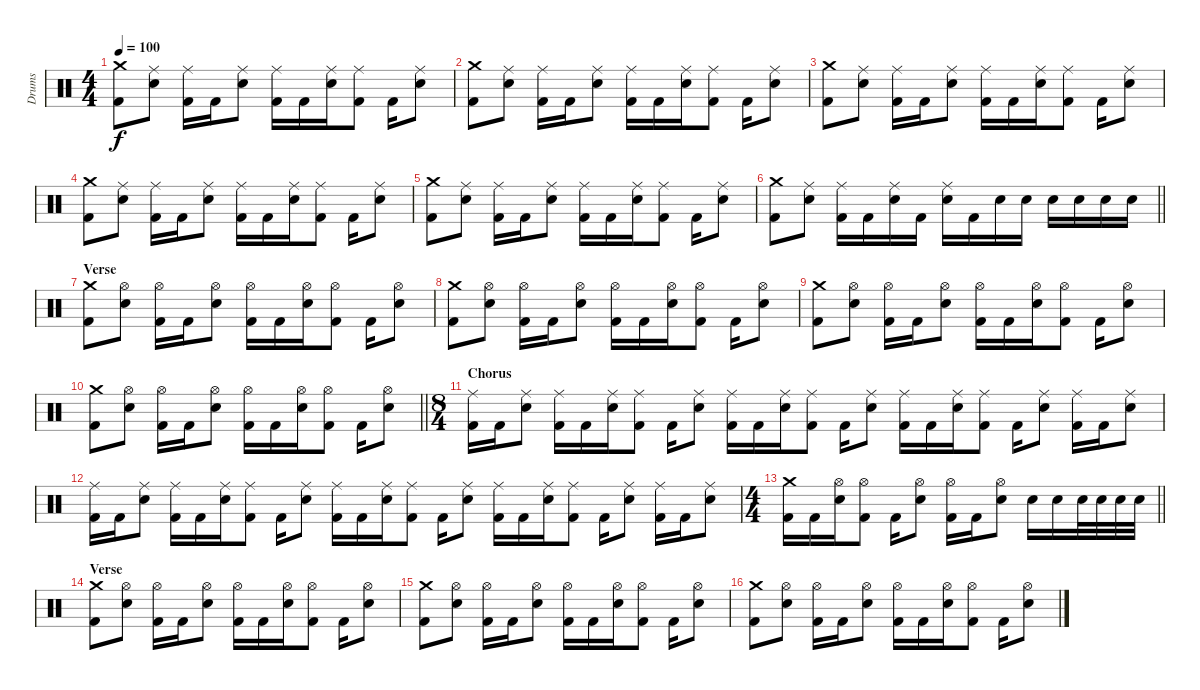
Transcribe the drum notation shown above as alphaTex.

\track ("Drums" "Drums") {instrument percussion}
\staff {score}
\articulation defaults
\ts (4 4)
\tempo 100
\clef neutral
\ks c
("Crash medium (hit)" "Kick (hit) 2").8{dy f} ("Ride (middle)" "Snare (hit) 2").8 ("Ride (middle)" "Kick (hit) 2").16 "Kick (hit) 2".16 ("Ride (middle)" "Snare (hit) 2").8 ("Ride (middle)" "Kick (hit) 2").16 "Kick (hit) 2".16 ("Ride (middle)" "Snare (hit) 2").16 ("Ride (middle)" "Kick (hit) 2").8 "Kick (hit) 2".16 ("Ride (middle)" "Snare (hit) 2").8 |
("Crash medium (hit)" "Kick (hit) 2").8 ("Ride (middle)" "Snare (hit) 2").8 ("Ride (middle)" "Kick (hit) 2").16 "Kick (hit) 2".16 ("Ride (middle)" "Snare (hit) 2").8 ("Ride (middle)" "Kick (hit) 2").16 "Kick (hit) 2".16 ("Ride (middle)" "Snare (hit) 2").16 ("Ride (middle)" "Kick (hit) 2").8 "Kick (hit) 2".16 ("Ride (middle)" "Snare (hit) 2").8 |
("Crash medium (hit)" "Kick (hit) 2").8 ("Ride (middle)" "Snare (hit) 2").8 ("Ride (middle)" "Kick (hit) 2").16 "Kick (hit) 2".16 ("Ride (middle)" "Snare (hit) 2").8 ("Ride (middle)" "Kick (hit) 2").16 "Kick (hit) 2".16 ("Ride (middle)" "Snare (hit) 2").16 ("Ride (middle)" "Kick (hit) 2").8 "Kick (hit) 2".16 ("Ride (middle)" "Snare (hit) 2").8 |
("Crash medium (hit)" "Kick (hit) 2").8 ("Ride (middle)" "Snare (hit) 2").8 ("Ride (middle)" "Kick (hit) 2").16 "Kick (hit) 2".16 ("Ride (middle)" "Snare (hit) 2").8 ("Ride (middle)" "Kick (hit) 2").16 "Kick (hit) 2".16 ("Ride (middle)" "Snare (hit) 2").16 ("Ride (middle)" "Kick (hit) 2").8 "Kick (hit) 2".16 ("Ride (middle)" "Snare (hit) 2").8 |
("Crash medium (hit)" "Kick (hit) 2").8 ("Ride (middle)" "Snare (hit) 2").8 ("Ride (middle)" "Kick (hit) 2").16 "Kick (hit) 2".16 ("Ride (middle)" "Snare (hit) 2").8 ("Ride (middle)" "Kick (hit) 2").16 "Kick (hit) 2".16 ("Ride (middle)" "Snare (hit) 2").16 ("Ride (middle)" "Kick (hit) 2").8 "Kick (hit) 2".16 ("Ride (middle)" "Snare (hit) 2").8 |
\barLineRight lightlight
("Crash medium (hit)" "Kick (hit) 2").8 ("Ride (middle)" "Snare (hit) 2").8 ("Ride (middle)" "Kick (hit) 2").16 "Kick (hit) 2".16 ("Ride (middle)" "Snare (hit) 2").16 "Kick (hit) 2".16 ("Ride (middle)" "Snare (hit) 2").16 "Kick (hit) 2".16 "Snare (hit) 2".16 "Snare (hit) 2".16 "Snare (hit) 2".16 "Snare (hit) 2".16 "Snare (hit) 2".16 "Snare (hit) 2".16 |
\section ("" "Verse")
("Crash medium (hit)" "Kick (hit) 2").8 ("Hi-Hat (open)" "Snare (hit) 2").8 ("Hi-Hat (open)" "Kick (hit) 2").16 "Kick (hit) 2".16 ("Hi-Hat (open)" "Snare (hit) 2").8 ("Hi-Hat (open)" "Kick (hit) 2").16 "Kick (hit) 2".16 ("Hi-Hat (open)" "Snare (hit) 2").16 ("Hi-Hat (open)" "Kick (hit) 2").8 "Kick (hit) 2".16 ("Hi-Hat (open)" "Snare (hit) 2").8 |
("Crash medium (hit)" "Kick (hit) 2").8 ("Hi-Hat (open)" "Snare (hit) 2").8 ("Hi-Hat (open)" "Kick (hit) 2").16 "Kick (hit) 2".16 ("Hi-Hat (open)" "Snare (hit) 2").8 ("Hi-Hat (open)" "Kick (hit) 2").16 "Kick (hit) 2".16 ("Hi-Hat (open)" "Snare (hit) 2").16 ("Hi-Hat (open)" "Kick (hit) 2").8 "Kick (hit) 2".16 ("Hi-Hat (open)" "Snare (hit) 2").8 |
("Crash medium (hit)" "Kick (hit) 2").8 ("Hi-Hat (open)" "Snare (hit) 2").8 ("Hi-Hat (open)" "Kick (hit) 2").16 "Kick (hit) 2".16 ("Hi-Hat (open)" "Snare (hit) 2").8 ("Hi-Hat (open)" "Kick (hit) 2").16 "Kick (hit) 2".16 ("Hi-Hat (open)" "Snare (hit) 2").16 ("Hi-Hat (open)" "Kick (hit) 2").8 "Kick (hit) 2".16 ("Hi-Hat (open)" "Snare (hit) 2").8 |
\barLineRight lightlight
("Crash medium (hit)" "Kick (hit) 2").8 ("Hi-Hat (open)" "Snare (hit) 2").8 ("Hi-Hat (open)" "Kick (hit) 2").16 "Kick (hit) 2".16 ("Hi-Hat (open)" "Snare (hit) 2").8 ("Hi-Hat (open)" "Kick (hit) 2").16 "Kick (hit) 2".16 ("Hi-Hat (open)" "Snare (hit) 2").16 ("Hi-Hat (open)" "Kick (hit) 2").8 "Kick (hit) 2".16 ("Hi-Hat (open)" "Snare (hit) 2").8 |
\ts (8 4)
\section ("" "Chorus")
("Ride (middle)" "Kick (hit) 2").16 "Kick (hit) 2".16 ("Ride (middle)" "Snare (hit) 2").8 ("Ride (middle)" "Kick (hit) 2").16 "Kick (hit) 2".16 ("Ride (middle)" "Snare (hit) 2").16 ("Ride (middle)" "Kick (hit) 2").8 "Kick (hit) 2".16 ("Ride (middle)" "Snare (hit) 2").8 ("Ride (middle)" "Kick (hit) 2").16 "Kick (hit) 2".16 ("Ride (middle)" "Snare (hit) 2").16 ("Ride (middle)" "Kick (hit) 2").8 "Kick (hit) 2".16 ("Ride (middle)" "Snare (hit) 2").8 ("Ride (middle)" "Kick (hit) 2").16 "Kick (hit) 2".16 ("Ride (middle)" "Snare (hit) 2").16 ("Ride (middle)" "Kick (hit) 2").8 "Kick (hit) 2".16 ("Ride (middle)" "Snare (hit) 2").8 ("Ride (middle)" "Kick (hit) 2").16 "Kick (hit) 2".16 ("Ride (middle)" "Snare (hit) 2").8 |
("Ride (middle)" "Kick (hit) 2").16 "Kick (hit) 2".16 ("Ride (middle)" "Snare (hit) 2").8 ("Ride (middle)" "Kick (hit) 2").16 "Kick (hit) 2".16 ("Ride (middle)" "Snare (hit) 2").16 ("Ride (middle)" "Kick (hit) 2").8 "Kick (hit) 2".16 ("Ride (middle)" "Snare (hit) 2").8 ("Ride (middle)" "Kick (hit) 2").16 "Kick (hit) 2".16 ("Ride (middle)" "Snare (hit) 2").16 ("Ride (middle)" "Kick (hit) 2").8 "Kick (hit) 2".16 ("Ride (middle)" "Snare (hit) 2").8 ("Ride (middle)" "Kick (hit) 2").16 "Kick (hit) 2".16 ("Ride (middle)" "Snare (hit) 2").16 ("Ride (middle)" "Kick (hit) 2").8 "Kick (hit) 2".16 ("Ride (middle)" "Snare (hit) 2").8 ("Ride (middle)" "Kick (hit) 2").16 "Kick (hit) 2".16 ("Ride (middle)" "Snare (hit) 2").8 |
\ts (4 4)
\barLineRight lightlight
("Crash medium (hit)" "Kick (hit) 2").16 "Kick (hit) 2".16 ("Hi-Hat (open)" "Snare (hit) 2").16 ("Hi-Hat (open)" "Kick (hit) 2").8 "Kick (hit) 2".16 ("Hi-Hat (open)" "Snare (hit) 2").8 ("Hi-Hat (open)" "Kick (hit) 2").16 "Kick (hit) 2".16 ("Hi-Hat (open)" "Snare (hit) 2").8 "Snare (hit) 2".16 "Snare (hit) 2".16 "Snare (hit) 2".32 "Snare (hit) 2".32 "Snare (hit) 2".32 "Snare (hit) 2".32 |
\section ("" "Verse")
("Crash medium (hit)" "Kick (hit) 2").8 ("Hi-Hat (open)" "Snare (hit) 2").8 ("Hi-Hat (open)" "Kick (hit) 2").16 "Kick (hit) 2".16 ("Hi-Hat (open)" "Snare (hit) 2").8 ("Hi-Hat (open)" "Kick (hit) 2").16 "Kick (hit) 2".16 ("Hi-Hat (open)" "Snare (hit) 2").16 ("Hi-Hat (open)" "Kick (hit) 2").8 "Kick (hit) 2".16 ("Hi-Hat (open)" "Snare (hit) 2").8 |
("Crash medium (hit)" "Kick (hit) 2").8 ("Hi-Hat (open)" "Snare (hit) 2").8 ("Hi-Hat (open)" "Kick (hit) 2").16 "Kick (hit) 2".16 ("Hi-Hat (open)" "Snare (hit) 2").8 ("Hi-Hat (open)" "Kick (hit) 2").16 "Kick (hit) 2".16 ("Hi-Hat (open)" "Snare (hit) 2").16 ("Hi-Hat (open)" "Kick (hit) 2").8 "Kick (hit) 2".16 ("Hi-Hat (open)" "Snare (hit) 2").8 |
("Crash medium (hit)" "Kick (hit) 2").8 ("Hi-Hat (open)" "Snare (hit) 2").8 ("Hi-Hat (open)" "Kick (hit) 2").16 "Kick (hit) 2".16 ("Hi-Hat (open)" "Snare (hit) 2").8 ("Hi-Hat (open)" "Kick (hit) 2").16 "Kick (hit) 2".16 ("Hi-Hat (open)" "Snare (hit) 2").16 ("Hi-Hat (open)" "Kick (hit) 2").8 "Kick (hit) 2".16 ("Hi-Hat (open)" "Snare (hit) 2").8
